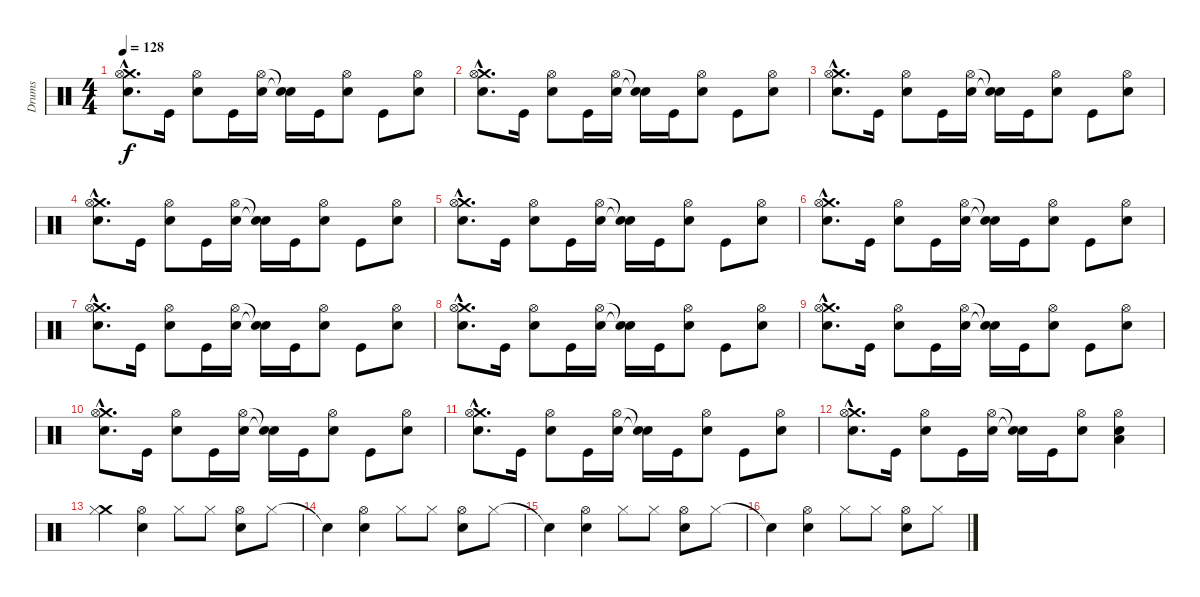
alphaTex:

\track ("Drums" "Drums") {instrument percussion}
\staff {score}
\articulation defaults
\ts (4 4)
\tempo 128
\clef neutral
\ks c
("Crash medium (hit)"{hac} "Hi-Hat (open)"{hac} "Snare (hit) 2"{hac}).8{d dy f} "Kick (hit)".16 ("Hi-Hat (open)" "Snare (hit) 2").8 "Kick (hit)".16 ("Hi-Hat (open)" "Snare (hit) 2").16 ("Snare (hit)"{t} "Snare (hit)"{t}).16 "Kick (hit)".16 ("Hi-Hat (open)" "Snare (hit) 2").8 "Kick (hit)".8 ("Hi-Hat (open)" "Snare (hit) 2").8 |
("Crash medium (hit)"{hac} "Hi-Hat (open)"{hac} "Snare (hit) 2"{hac}).8{d} "Kick (hit)".16 ("Hi-Hat (open)" "Snare (hit) 2").8 "Kick (hit)".16 ("Hi-Hat (open)" "Snare (hit) 2").16 ("Snare (hit)"{t} "Snare (hit)"{t}).16 "Kick (hit)".16 ("Hi-Hat (open)" "Snare (hit) 2").8 "Kick (hit)".8 ("Hi-Hat (open)" "Snare (hit) 2").8 |
("Crash medium (hit)"{hac} "Hi-Hat (open)"{hac} "Snare (hit) 2"{hac}).8{d} "Kick (hit)".16 ("Hi-Hat (open)" "Snare (hit) 2").8 "Kick (hit)".16 ("Hi-Hat (open)" "Snare (hit) 2").16 ("Snare (hit)"{t} "Snare (hit)"{t}).16 "Kick (hit)".16 ("Hi-Hat (open)" "Snare (hit) 2").8 "Kick (hit)".8 ("Hi-Hat (open)" "Snare (hit) 2").8 |
("Crash medium (hit)"{hac} "Hi-Hat (open)"{hac} "Snare (hit) 2"{hac}).8{d} "Kick (hit)".16 ("Hi-Hat (open)" "Snare (hit) 2").8 "Kick (hit)".16 ("Hi-Hat (open)" "Snare (hit) 2").16 ("Snare (hit)"{t} "Snare (hit)"{t}).16 "Kick (hit)".16 ("Hi-Hat (open)" "Snare (hit) 2").8 "Kick (hit)".8 ("Hi-Hat (open)" "Snare (hit) 2").8 |
("Crash medium (hit)"{hac} "Hi-Hat (open)"{hac} "Snare (hit) 2"{hac}).8{d} "Kick (hit)".16 ("Hi-Hat (open)" "Snare (hit) 2").8 "Kick (hit)".16 ("Hi-Hat (open)" "Snare (hit) 2").16 ("Snare (hit)"{t} "Snare (hit)"{t}).16 "Kick (hit)".16 ("Hi-Hat (open)" "Snare (hit) 2").8 "Kick (hit)".8 ("Hi-Hat (open)" "Snare (hit) 2").8 |
("Crash medium (hit)"{hac} "Hi-Hat (open)"{hac} "Snare (hit) 2"{hac}).8{d} "Kick (hit)".16 ("Hi-Hat (open)" "Snare (hit) 2").8 "Kick (hit)".16 ("Hi-Hat (open)" "Snare (hit) 2").16 ("Snare (hit)"{t} "Snare (hit)"{t}).16 "Kick (hit)".16 ("Hi-Hat (open)" "Snare (hit) 2").8 "Kick (hit)".8 ("Hi-Hat (open)" "Snare (hit) 2").8 |
("Crash medium (hit)"{hac} "Hi-Hat (open)"{hac} "Snare (hit) 2"{hac}).8{d} "Kick (hit)".16 ("Hi-Hat (open)" "Snare (hit) 2").8 "Kick (hit)".16 ("Hi-Hat (open)" "Snare (hit) 2").16 ("Snare (hit)"{t} "Snare (hit)"{t}).16 "Kick (hit)".16 ("Hi-Hat (open)" "Snare (hit) 2").8 "Kick (hit)".8 ("Hi-Hat (open)" "Snare (hit) 2").8 |
("Crash medium (hit)"{hac} "Hi-Hat (open)"{hac} "Snare (hit) 2"{hac}).8{d} "Kick (hit)".16 ("Hi-Hat (open)" "Snare (hit) 2").8 "Kick (hit)".16 ("Hi-Hat (open)" "Snare (hit) 2").16 ("Snare (hit)"{t} "Snare (hit)"{t}).16 "Kick (hit)".16 ("Hi-Hat (open)" "Snare (hit) 2").8 "Kick (hit)".8 ("Hi-Hat (open)" "Snare (hit) 2").8 |
("Crash medium (hit)"{hac} "Hi-Hat (open)"{hac} "Snare (hit) 2"{hac}).8{d} "Kick (hit)".16 ("Hi-Hat (open)" "Snare (hit) 2").8 "Kick (hit)".16 ("Hi-Hat (open)" "Snare (hit) 2").16 ("Snare (hit)"{t} "Snare (hit)"{t}).16 "Kick (hit)".16 ("Hi-Hat (open)" "Snare (hit) 2").8 "Kick (hit)".8 ("Hi-Hat (open)" "Snare (hit) 2").8 |
("Crash medium (hit)"{hac} "Hi-Hat (open)"{hac} "Snare (hit) 2"{hac}).8{d} "Kick (hit)".16 ("Hi-Hat (open)" "Snare (hit) 2").8 "Kick (hit)".16 ("Hi-Hat (open)" "Snare (hit) 2").16 ("Snare (hit)"{t} "Snare (hit)"{t}).16 "Kick (hit)".16 ("Hi-Hat (open)" "Snare (hit) 2").8 "Kick (hit)".8 ("Hi-Hat (open)" "Snare (hit) 2").8 |
("Crash medium (hit)"{hac} "Hi-Hat (open)"{hac} "Snare (hit) 2"{hac}).8{d} "Kick (hit)".16 ("Hi-Hat (open)" "Snare (hit) 2").8 "Kick (hit)".16 ("Hi-Hat (open)" "Snare (hit) 2").16 ("Snare (hit)"{t} "Snare (hit)"{t}).16 "Kick (hit)".16 ("Hi-Hat (open)" "Snare (hit) 2").8 "Kick (hit)".8 ("Hi-Hat (open)" "Snare (hit) 2").8 |
("Crash medium (hit)"{hac} "Hi-Hat (open)"{hac} "Snare (hit) 2"{hac}).8{d} "Kick (hit)".16 ("Hi-Hat (open)" "Snare (hit) 2").8 "Kick (hit)".16 ("Hi-Hat (open)" "Snare (hit) 2").16 ("Snare (hit)"{t} "Snare (hit)"{t}).16 "Kick (hit)".16 ("Hi-Hat (open)" "Snare (hit) 2").8 ("Low Tom (hit)" "Hi-Hat (open)" "Snare (hit) 2").4 |
("Crash medium (hit)" "Hi-Hat (closed)").4 ("Snare (hit) 2" "Hi-Hat (open)").4 "Hi-Hat (closed)".8 "Hi-Hat (closed)".8 ("Snare (hit) 2" "Hi-Hat (open)").8 "Hi-Hat (closed)".8 |
"Snare (hit)"{t}.4 ("Snare (hit) 2" "Hi-Hat (open)").4 "Hi-Hat (closed)".8 "Hi-Hat (closed)".8 ("Snare (hit) 2" "Hi-Hat (open)").8 "Hi-Hat (closed)".8 |
"Snare (hit)"{t}.4 ("Snare (hit) 2" "Hi-Hat (open)").4 "Hi-Hat (closed)".8 "Hi-Hat (closed)".8 ("Snare (hit) 2" "Hi-Hat (open)").8 "Hi-Hat (closed)".8 |
"Snare (hit)"{t}.4 ("Snare (hit) 2" "Hi-Hat (open)").4 "Hi-Hat (closed)".8 "Hi-Hat (closed)".8 ("Snare (hit) 2" "Hi-Hat (open)").8 "Hi-Hat (closed)".8
